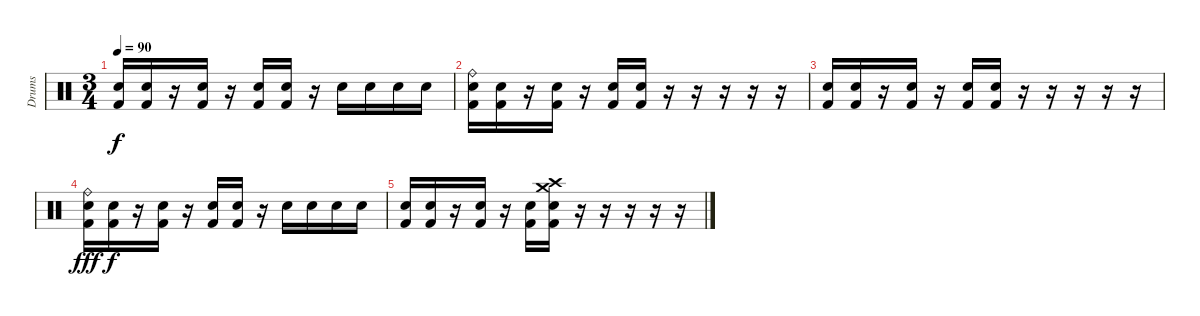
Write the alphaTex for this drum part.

\track ("Drums" "Drums") {instrument percussion}
\staff {score}
\articulation defaults
\ts (3 4)
\tempo 90
\clef neutral
\ks c
("Kick (hit) 2" "Snare (hit) 2").16{dy f} ("Kick (hit) 2" "Snare (hit) 2").16 r.16 ("Kick (hit) 2" "Snare (hit) 2").16 r.16 ("Kick (hit) 2" "Snare (hit) 2").16 ("Kick (hit) 2" "Snare (hit) 2").16 r.16 "Electric Snare (hit)".16 "Electric Snare (hit)".16 "Electric Snare (hit)".16 "Electric Snare (hit)".16 |
("Kick (hit) 2" "Snare (hit) 2" "Ride (bell)").16 ("Kick (hit) 2" "Snare (hit) 2").16 r.16 ("Kick (hit) 2" "Snare (hit) 2").16 r.16 ("Kick (hit) 2" "Snare (hit) 2").16 ("Kick (hit) 2" "Snare (hit) 2").16 r.16 r.16 r.16 r.16 r.16 |
("Kick (hit) 2" "Snare (hit) 2").16 ("Kick (hit) 2" "Snare (hit) 2").16 r.16 ("Kick (hit) 2" "Snare (hit) 2").16 r.16 ("Kick (hit) 2" "Snare (hit) 2").16 ("Kick (hit) 2" "Snare (hit) 2").16 r.16 r.16 r.16 r.16 r.16 |
("Kick (hit) 2" "Snare (hit) 2" "Ride (bell)").16{dy fff} ("Kick (hit) 2" "Snare (hit) 2").16{dy f} r.16 ("Kick (hit) 2" "Snare (hit) 2").16 r.16 ("Kick (hit) 2" "Snare (hit) 2").16 ("Kick (hit) 2" "Snare (hit) 2").16 r.16 "Electric Snare (hit)".16 "Electric Snare (hit)".16 "Electric Snare (hit)".16 "Electric Snare (hit)".16 |
("Kick (hit) 2" "Snare (hit) 2").16 ("Kick (hit) 2" "Snare (hit) 2").16 r.16 ("Kick (hit) 2" "Snare (hit) 2").16 r.16 ("Kick (hit) 2" "Snare (hit) 2").16 ("Kick (hit) 2" "Snare (hit) 2" "Crash medium (hit)" "Crash high (hit)").16 r.16 r.16 r.16 r.16 r.16
